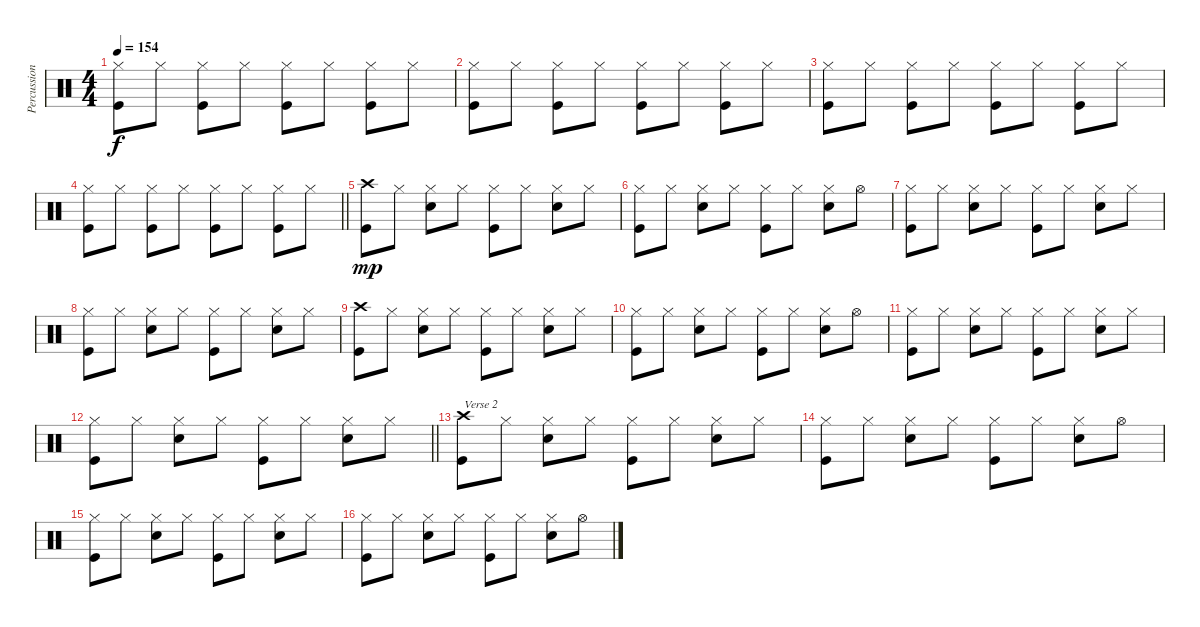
\track ("Percussion" "Percussion") {instrument percussion}
\staff {score}
\articulation defaults
\ts (4 4)
\tempo 154
\clef neutral
\ks c
("Hi-Hat (closed)" "Kick (hit)").8{dy f} "Hi-Hat (closed)".8 ("Hi-Hat (closed)" "Kick (hit)").8 "Hi-Hat (closed)".8 ("Hi-Hat (closed)" "Kick (hit)").8 "Hi-Hat (closed)".8 ("Hi-Hat (closed)" "Kick (hit)").8 "Hi-Hat (closed)".8 |
("Hi-Hat (closed)" "Kick (hit)").8 "Hi-Hat (closed)".8 ("Hi-Hat (closed)" "Kick (hit)").8 "Hi-Hat (closed)".8 ("Hi-Hat (closed)" "Kick (hit)").8 "Hi-Hat (closed)".8 ("Hi-Hat (closed)" "Kick (hit)").8 "Hi-Hat (closed)".8 |
("Hi-Hat (closed)" "Kick (hit)").8 "Hi-Hat (closed)".8 ("Hi-Hat (closed)" "Kick (hit)").8 "Hi-Hat (closed)".8 ("Hi-Hat (closed)" "Kick (hit)").8 "Hi-Hat (closed)".8 ("Hi-Hat (closed)" "Kick (hit)").8 "Hi-Hat (closed)".8 |
\barLineRight lightlight
("Hi-Hat (closed)" "Kick (hit)").8 "Hi-Hat (closed)".8 ("Hi-Hat (closed)" "Kick (hit)").8 "Hi-Hat (closed)".8 ("Hi-Hat (closed)" "Kick (hit)").8 "Hi-Hat (closed)".8 ("Hi-Hat (closed)" "Kick (hit)").8 "Hi-Hat (closed)".8 |
("Crash high (hit)" "Kick (hit)").8{dy mp} "Hi-Hat (closed)".8 ("Hi-Hat (closed)" "Electric Snare (hit)").8 "Hi-Hat (closed)".8 ("Hi-Hat (closed)" "Kick (hit)").8 "Hi-Hat (closed)".8 ("Hi-Hat (closed)" "Electric Snare (hit)").8 "Hi-Hat (closed)".8 |
("Hi-Hat (closed)" "Kick (hit)").8 "Hi-Hat (closed)".8 ("Hi-Hat (closed)" "Electric Snare (hit)").8 "Hi-Hat (closed)".8 ("Hi-Hat (closed)" "Kick (hit)").8 "Hi-Hat (closed)".8 ("Hi-Hat (closed)" "Electric Snare (hit)").8 "Hi-Hat (open)".8 |
("Hi-Hat (closed)" "Kick (hit)").8 "Hi-Hat (closed)".8 ("Hi-Hat (closed)" "Electric Snare (hit)").8 "Hi-Hat (closed)".8 ("Hi-Hat (closed)" "Kick (hit)").8 "Hi-Hat (closed)".8 ("Hi-Hat (closed)" "Electric Snare (hit)").8 "Hi-Hat (closed)".8 |
("Hi-Hat (closed)" "Kick (hit)").8 "Hi-Hat (closed)".8 ("Hi-Hat (closed)" "Electric Snare (hit)").8 "Hi-Hat (closed)".8 ("Hi-Hat (closed)" "Kick (hit)").8 "Hi-Hat (closed)".8 ("Hi-Hat (closed)" "Electric Snare (hit)").8 "Hi-Hat (closed)".8 |
("Crash high (hit)" "Kick (hit)").8 "Hi-Hat (closed)".8 ("Hi-Hat (closed)" "Electric Snare (hit)").8 "Hi-Hat (closed)".8 ("Hi-Hat (closed)" "Kick (hit)").8 "Hi-Hat (closed)".8 ("Hi-Hat (closed)" "Electric Snare (hit)").8 "Hi-Hat (closed)".8 |
("Hi-Hat (closed)" "Kick (hit)").8 "Hi-Hat (closed)".8 ("Hi-Hat (closed)" "Electric Snare (hit)").8 "Hi-Hat (closed)".8 ("Hi-Hat (closed)" "Kick (hit)").8 "Hi-Hat (closed)".8 ("Hi-Hat (closed)" "Electric Snare (hit)").8 "Hi-Hat (open)".8 |
("Hi-Hat (closed)" "Kick (hit)").8 "Hi-Hat (closed)".8 ("Hi-Hat (closed)" "Electric Snare (hit)").8 "Hi-Hat (closed)".8 ("Hi-Hat (closed)" "Kick (hit)").8 "Hi-Hat (closed)".8 ("Hi-Hat (closed)" "Electric Snare (hit)").8 "Hi-Hat (closed)".8 |
\barLineRight lightlight
("Hi-Hat (closed)" "Kick (hit)").8 "Hi-Hat (closed)".8 ("Hi-Hat (closed)" "Electric Snare (hit)").8 "Hi-Hat (closed)".8 ("Hi-Hat (closed)" "Kick (hit)").8 "Hi-Hat (closed)".8 ("Hi-Hat (closed)" "Electric Snare (hit)").8 "Hi-Hat (closed)".8 |
("Crash high (hit)" "Kick (hit)").8{txt "Verse 2"} "Hi-Hat (closed)".8 ("Hi-Hat (closed)" "Electric Snare (hit)").8 "Hi-Hat (closed)".8 ("Hi-Hat (closed)" "Kick (hit)").8 "Hi-Hat (closed)".8 ("Hi-Hat (closed)" "Electric Snare (hit)").8 "Hi-Hat (closed)".8 |
("Hi-Hat (closed)" "Kick (hit)").8 "Hi-Hat (closed)".8 ("Hi-Hat (closed)" "Electric Snare (hit)").8 "Hi-Hat (closed)".8 ("Hi-Hat (closed)" "Kick (hit)").8 "Hi-Hat (closed)".8 ("Hi-Hat (closed)" "Electric Snare (hit)").8 "Hi-Hat (open)".8 |
("Hi-Hat (closed)" "Kick (hit)").8 "Hi-Hat (closed)".8 ("Hi-Hat (closed)" "Electric Snare (hit)").8 "Hi-Hat (closed)".8 ("Hi-Hat (closed)" "Kick (hit)").8 "Hi-Hat (closed)".8 ("Hi-Hat (closed)" "Electric Snare (hit)").8 "Hi-Hat (closed)".8 |
("Hi-Hat (closed)" "Kick (hit)").8 "Hi-Hat (closed)".8 ("Hi-Hat (closed)" "Electric Snare (hit)").8 "Hi-Hat (closed)".8 ("Hi-Hat (closed)" "Kick (hit)").8 "Hi-Hat (closed)".8 ("Hi-Hat (closed)" "Electric Snare (hit)").8 "Hi-Hat (open)".8
